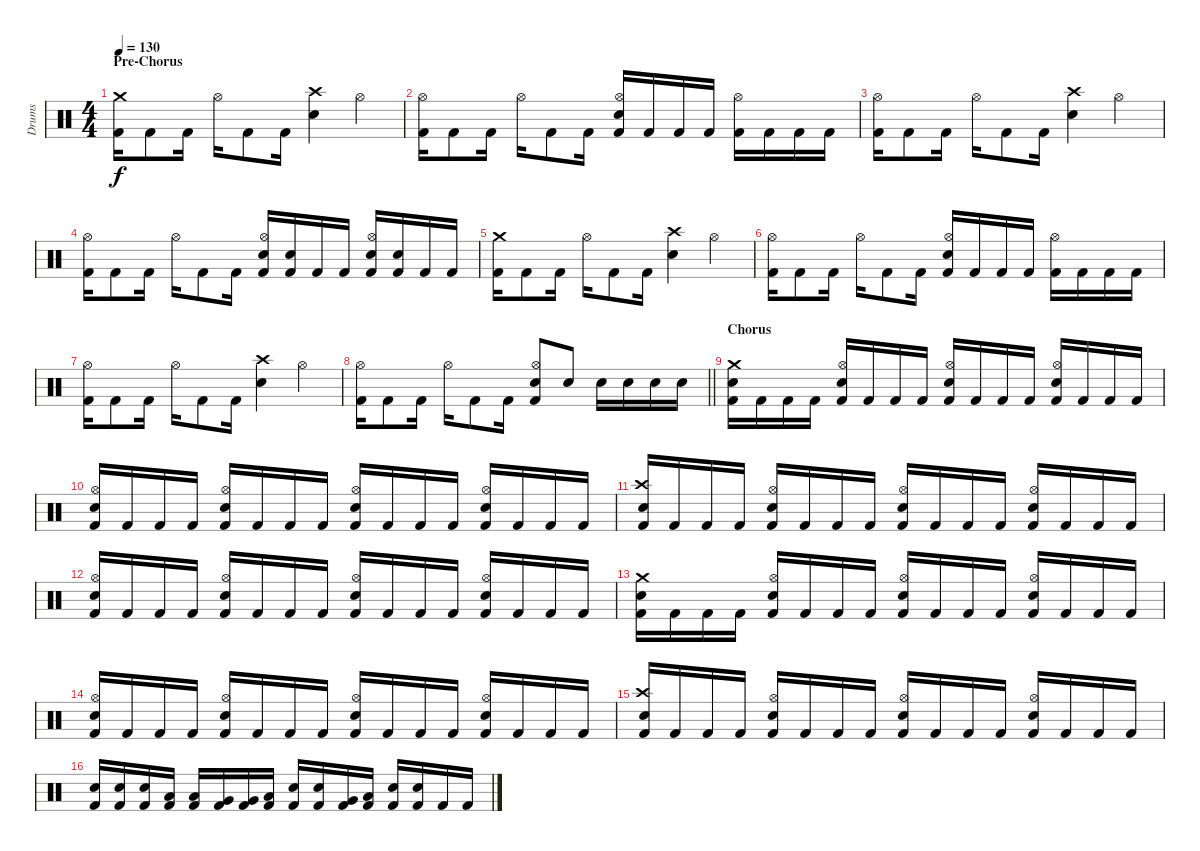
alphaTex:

\track ("Drums" "Drums") {instrument percussion}
\staff {score}
\articulation defaults
\ts (4 4)
\section ("" "Pre-Chorus")
\tempo 130
\clef neutral
\ks c
("Crash medium (hit)" "Kick (hit) 2").16{dy f} "Kick (hit) 2".8 "Kick (hit) 2".16 "Hi-Hat (open)".16 "Kick (hit) 2".8 "Kick (hit) 2".16 ("Crash high (hit)" "Electric Snare (hit)").4 "Hi-Hat (open)".4 |
("Hi-Hat (open)" "Kick (hit) 2").16 "Kick (hit) 2".8 "Kick (hit) 2".16 "Hi-Hat (open)".16 "Kick (hit) 2".8 "Kick (hit) 2".16 ("Hi-Hat (open)" "Electric Snare (hit)" "Kick (hit) 2").16 "Kick (hit) 2".16 "Kick (hit) 2".16 "Kick (hit) 2".16 ("Hi-Hat (open)" "Kick (hit) 2").16 "Kick (hit) 2".16 "Kick (hit) 2".16 "Kick (hit) 2".16 |
("Hi-Hat (open)" "Kick (hit) 2").16 "Kick (hit) 2".8 "Kick (hit) 2".16 "Hi-Hat (open)".16 "Kick (hit) 2".8 "Kick (hit) 2".16 ("Crash high (hit)" "Electric Snare (hit)").4 "Hi-Hat (open)".4 |
("Hi-Hat (open)" "Kick (hit) 2").16 "Kick (hit) 2".8 "Kick (hit) 2".16 "Hi-Hat (open)".16 "Kick (hit) 2".8 "Kick (hit) 2".16 ("Hi-Hat (open)" "Electric Snare (hit)" "Kick (hit) 2").16 ("Electric Snare (hit)" "Kick (hit) 2").16 "Kick (hit) 2".16 "Kick (hit) 2".16 ("Hi-Hat (open)" "Electric Snare (hit)" "Kick (hit) 2").16 ("Electric Snare (hit)" "Kick (hit) 2").16 "Kick (hit) 2".16 "Kick (hit) 2".16 |
("Crash medium (hit)" "Kick (hit) 2").16 "Kick (hit) 2".8 "Kick (hit) 2".16 "Hi-Hat (open)".16 "Kick (hit) 2".8 "Kick (hit) 2".16 ("Crash high (hit)" "Electric Snare (hit)").4 "Hi-Hat (open)".4 |
("Hi-Hat (open)" "Kick (hit) 2").16 "Kick (hit) 2".8 "Kick (hit) 2".16 "Hi-Hat (open)".16 "Kick (hit) 2".8 "Kick (hit) 2".16 ("Hi-Hat (open)" "Electric Snare (hit)" "Kick (hit) 2").16 "Kick (hit) 2".16 "Kick (hit) 2".16 "Kick (hit) 2".16 ("Hi-Hat (open)" "Kick (hit) 2").16 "Kick (hit) 2".16 "Kick (hit) 2".16 "Kick (hit) 2".16 |
("Hi-Hat (open)" "Kick (hit) 2").16 "Kick (hit) 2".8 "Kick (hit) 2".16 "Hi-Hat (open)".16 "Kick (hit) 2".8 "Kick (hit) 2".16 ("Crash high (hit)" "Electric Snare (hit)").4 "Hi-Hat (open)".4 |
\barLineRight lightlight
("Hi-Hat (open)" "Kick (hit) 2").16 "Kick (hit) 2".8 "Kick (hit) 2".16 "Hi-Hat (open)".16 "Kick (hit) 2".8 "Kick (hit) 2".16 ("Hi-Hat (open)" "Electric Snare (hit)" "Kick (hit) 2").8 "Electric Snare (hit)".8 "Electric Snare (hit)".16 "Electric Snare (hit)".16 "Electric Snare (hit)".16 "Electric Snare (hit)".16 |
\section ("" "Chorus")
("Crash medium (hit)" "Electric Snare (hit)" "Kick (hit) 2").16 "Kick (hit) 2".16 "Kick (hit) 2".16 "Kick (hit) 2".16 ("Hi-Hat (open)" "Electric Snare (hit)" "Kick (hit) 2").16 "Kick (hit) 2".16 "Kick (hit) 2".16 "Kick (hit) 2".16 ("Hi-Hat (open)" "Electric Snare (hit)" "Kick (hit) 2").16 "Kick (hit) 2".16 "Kick (hit) 2".16 "Kick (hit) 2".16 ("Hi-Hat (open)" "Electric Snare (hit)" "Kick (hit) 2").16 "Kick (hit) 2".16 "Kick (hit) 2".16 "Kick (hit) 2".16 |
("Hi-Hat (open)" "Electric Snare (hit)" "Kick (hit) 2").16 "Kick (hit) 2".16 "Kick (hit) 2".16 "Kick (hit) 2".16 ("Hi-Hat (open)" "Electric Snare (hit)" "Kick (hit) 2").16 "Kick (hit) 2".16 "Kick (hit) 2".16 "Kick (hit) 2".16 ("Hi-Hat (open)" "Electric Snare (hit)" "Kick (hit) 2").16 "Kick (hit) 2".16 "Kick (hit) 2".16 "Kick (hit) 2".16 ("Hi-Hat (open)" "Electric Snare (hit)" "Kick (hit) 2").16 "Kick (hit) 2".16 "Kick (hit) 2".16 "Kick (hit) 2".16 |
("Crash high (hit)" "Electric Snare (hit)" "Kick (hit) 2").16 "Kick (hit) 2".16 "Kick (hit) 2".16 "Kick (hit) 2".16 ("Hi-Hat (open)" "Electric Snare (hit)" "Kick (hit) 2").16 "Kick (hit) 2".16 "Kick (hit) 2".16 "Kick (hit) 2".16 ("Hi-Hat (open)" "Electric Snare (hit)" "Kick (hit) 2").16 "Kick (hit) 2".16 "Kick (hit) 2".16 "Kick (hit) 2".16 ("Hi-Hat (open)" "Electric Snare (hit)" "Kick (hit) 2").16 "Kick (hit) 2".16 "Kick (hit) 2".16 "Kick (hit) 2".16 |
("Hi-Hat (open)" "Electric Snare (hit)" "Kick (hit) 2").16 "Kick (hit) 2".16 "Kick (hit) 2".16 "Kick (hit) 2".16 ("Hi-Hat (open)" "Electric Snare (hit)" "Kick (hit) 2").16 "Kick (hit) 2".16 "Kick (hit) 2".16 "Kick (hit) 2".16 ("Hi-Hat (open)" "Electric Snare (hit)" "Kick (hit) 2").16 "Kick (hit) 2".16 "Kick (hit) 2".16 "Kick (hit) 2".16 ("Hi-Hat (open)" "Electric Snare (hit)" "Kick (hit) 2").16 "Kick (hit) 2".16 "Kick (hit) 2".16 "Kick (hit) 2".16 |
("Crash medium (hit)" "Electric Snare (hit)" "Kick (hit) 2").16 "Kick (hit) 2".16 "Kick (hit) 2".16 "Kick (hit) 2".16 ("Hi-Hat (open)" "Electric Snare (hit)" "Kick (hit) 2").16 "Kick (hit) 2".16 "Kick (hit) 2".16 "Kick (hit) 2".16 ("Hi-Hat (open)" "Electric Snare (hit)" "Kick (hit) 2").16 "Kick (hit) 2".16 "Kick (hit) 2".16 "Kick (hit) 2".16 ("Hi-Hat (open)" "Electric Snare (hit)" "Kick (hit) 2").16 "Kick (hit) 2".16 "Kick (hit) 2".16 "Kick (hit) 2".16 |
("Hi-Hat (open)" "Electric Snare (hit)" "Kick (hit) 2").16 "Kick (hit) 2".16 "Kick (hit) 2".16 "Kick (hit) 2".16 ("Hi-Hat (open)" "Electric Snare (hit)" "Kick (hit) 2").16 "Kick (hit) 2".16 "Kick (hit) 2".16 "Kick (hit) 2".16 ("Hi-Hat (open)" "Electric Snare (hit)" "Kick (hit) 2").16 "Kick (hit) 2".16 "Kick (hit) 2".16 "Kick (hit) 2".16 ("Hi-Hat (open)" "Electric Snare (hit)" "Kick (hit) 2").16 "Kick (hit) 2".16 "Kick (hit) 2".16 "Kick (hit) 2".16 |
("Crash high (hit)" "Electric Snare (hit)" "Kick (hit) 2").16 "Kick (hit) 2".16 "Kick (hit) 2".16 "Kick (hit) 2".16 ("Hi-Hat (open)" "Electric Snare (hit)" "Kick (hit) 2").16 "Kick (hit) 2".16 "Kick (hit) 2".16 "Kick (hit) 2".16 ("Hi-Hat (open)" "Electric Snare (hit)" "Kick (hit) 2").16 "Kick (hit) 2".16 "Kick (hit) 2".16 "Kick (hit) 2".16 ("Hi-Hat (open)" "Electric Snare (hit)" "Kick (hit) 2").16 "Kick (hit) 2".16 "Kick (hit) 2".16 "Kick (hit) 2".16 |
("Electric Snare (hit)" "Kick (hit) 2").16 ("Electric Snare (hit)" "Kick (hit) 2").16 ("Electric Snare (hit)" "Kick (hit) 2").16 ("Low Tom (hit)" "Kick (hit) 2").16 ("Low Tom (hit)" "Kick (hit) 2").16 ("Very Low Tom (hit)" "Kick (hit) 2").16 ("Very Low Tom (hit)" "Kick (hit) 2").16 ("Low Floor Tom (hit)" "Kick (hit) 2").16 ("Electric Snare (hit)" "Kick (hit) 2").16 ("Electric Snare (hit)" "Kick (hit) 2").16 ("Very Low Tom (hit)" "Kick (hit) 2").16 ("Low Floor Tom (hit)" "Kick (hit) 2").16 ("Electric Snare (hit)" "Kick (hit) 2").16 ("Electric Snare (hit)" "Kick (hit) 2").16 "Kick (hit) 2".16 "Kick (hit) 2".16
